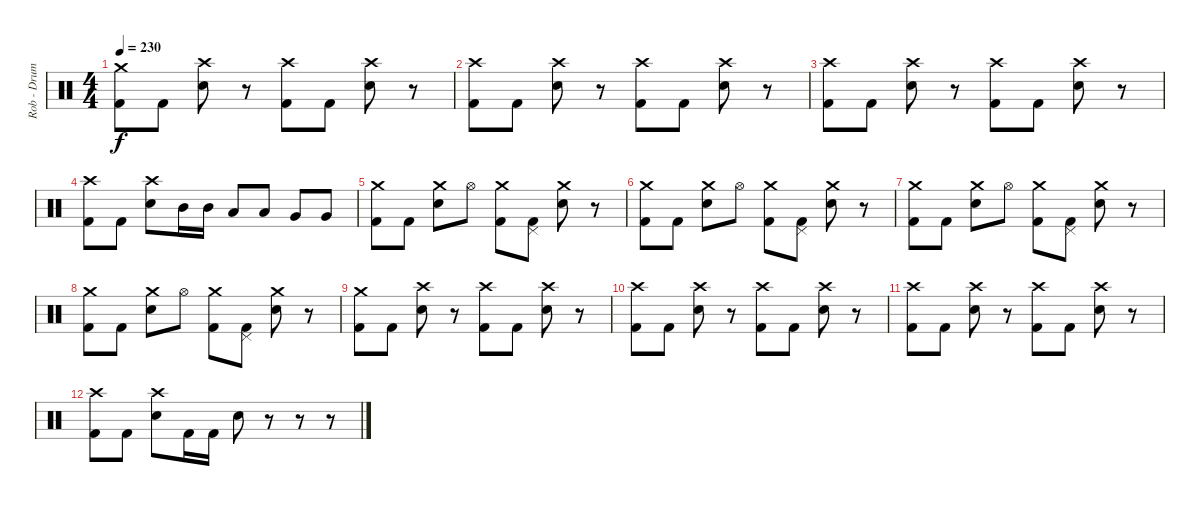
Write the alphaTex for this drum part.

\track ("Rob - Drums" "Rob - Drum") {instrument percussion}
\staff {score}
\articulation defaults
\ts (4 4)
\tempo 230
\clef neutral
\ks c
("Crash medium (hit)" "Kick (hit) 2").8{dy f} "Kick (hit) 2".8 ("Crash high (hit)" "Electric Snare (hit)").8 r.8 ("Crash high (hit)" "Kick (hit) 2").8 "Kick (hit) 2".8 ("Crash high (hit)" "Electric Snare (hit)").8 r.8 |
("Crash high (hit)" "Kick (hit) 2").8 "Kick (hit) 2".8 ("Crash high (hit)" "Electric Snare (hit)").8 r.8 ("Crash high (hit)" "Kick (hit) 2").8 "Kick (hit) 2".8 ("Crash high (hit)" "Electric Snare (hit)").8 r.8 |
("Crash high (hit)" "Kick (hit) 2").8 "Kick (hit) 2".8 ("Crash high (hit)" "Electric Snare (hit)").8 r.8 ("Crash high (hit)" "Kick (hit) 2").8 "Kick (hit) 2".8 ("Crash high (hit)" "Electric Snare (hit)").8 r.8 |
("Crash high (hit)" "Kick (hit) 2").8 "Kick (hit) 2".8 ("Crash high (hit)" "Electric Snare (hit)").8 "Mid Tom (hit)".16 "Mid Tom (hit)".16 "Low Tom (hit)".8 "Low Tom (hit)".8 "Very Low Tom (hit)".8 "Very Low Tom (hit)".8 |
("Crash medium (hit)" "Kick (hit) 2").8 "Kick (hit) 2".8 ("Crash medium (hit)" "Electric Snare (hit)").8 "Hi-Hat (open)".8 ("Crash medium (hit)" "Kick (hit) 2").8 ("Pedal Hi-Hat (hit)" "Kick (hit) 2").8 ("Crash medium (hit)" "Electric Snare (hit)").8 r.8 |
("Crash medium (hit)" "Kick (hit) 2").8 "Kick (hit) 2".8 ("Crash medium (hit)" "Electric Snare (hit)").8 "Hi-Hat (open)".8 ("Crash medium (hit)" "Kick (hit) 2").8 ("Pedal Hi-Hat (hit)" "Kick (hit) 2").8 ("Crash medium (hit)" "Electric Snare (hit)").8 r.8 |
("Crash medium (hit)" "Kick (hit) 2").8 "Kick (hit) 2".8 ("Crash medium (hit)" "Electric Snare (hit)").8 "Hi-Hat (open)".8 ("Crash medium (hit)" "Kick (hit) 2").8 ("Pedal Hi-Hat (hit)" "Kick (hit) 2").8 ("Crash medium (hit)" "Electric Snare (hit)").8 r.8 |
("Crash medium (hit)" "Kick (hit) 2").8 "Kick (hit) 2".8 ("Crash medium (hit)" "Electric Snare (hit)").8 "Hi-Hat (open)".8 ("Crash medium (hit)" "Kick (hit) 2").8 ("Pedal Hi-Hat (hit)" "Kick (hit) 2").8 ("Crash medium (hit)" "Electric Snare (hit)").8 r.8 |
("Crash medium (hit)" "Kick (hit) 2").8 "Kick (hit) 2".8 ("Crash high (hit)" "Electric Snare (hit)").8 r.8 ("Crash high (hit)" "Kick (hit) 2").8 "Kick (hit) 2".8 ("Crash high (hit)" "Electric Snare (hit)").8 r.8 |
("Crash high (hit)" "Kick (hit) 2").8 "Kick (hit) 2".8 ("Crash high (hit)" "Electric Snare (hit)").8 r.8 ("Crash high (hit)" "Kick (hit) 2").8 "Kick (hit) 2".8 ("Crash high (hit)" "Electric Snare (hit)").8 r.8 |
("Crash high (hit)" "Kick (hit) 2").8 "Kick (hit) 2".8 ("Crash high (hit)" "Electric Snare (hit)").8 r.8 ("Crash high (hit)" "Kick (hit) 2").8 "Kick (hit) 2".8 ("Crash high (hit)" "Electric Snare (hit)").8 r.8 |
("Crash high (hit)" "Kick (hit) 2").8 "Kick (hit) 2".8 ("Crash high (hit)" "Electric Snare (hit)").8 "Kick (hit) 2".16 "Kick (hit) 2".16 "Electric Snare (hit)".8 r.8 r.8 r.8
